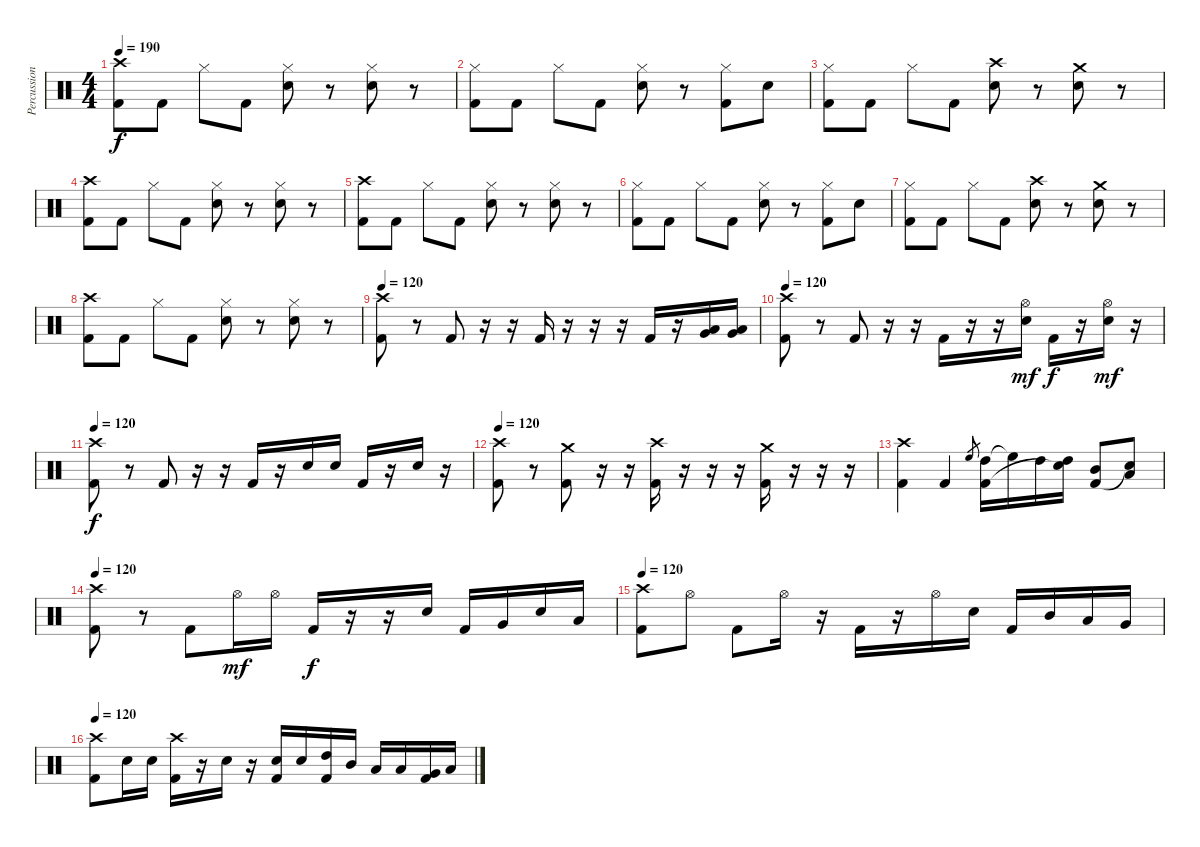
\track ("Percussion" "Percussion") {instrument percussion}
\staff {score}
\articulation defaults
\ts (4 4)
\tempo 190
\clef neutral
\ks c
("Crash high (hit)" "Kick (hit) 2").8{dy f} "Kick (hit) 2".8 "Hi-Hat (closed)".8 "Kick (hit) 2".8 ("Hi-Hat (closed)" "Snare (hit) 2").8 r.8 ("Hi-Hat (closed)" "Snare (hit) 2").8 r.8 |
("Hi-Hat (closed)" "Kick (hit) 2").8 "Kick (hit) 2".8 "Hi-Hat (closed)".8 "Kick (hit) 2".8 ("Hi-Hat (closed)" "Snare (hit) 2").8 r.8 ("Hi-Hat (closed)" "Kick (hit) 2").8 "Snare (hit) 2".8 |
("Hi-Hat (closed)" "Kick (hit) 2").8 "Kick (hit) 2".8 "Hi-Hat (closed)".8 "Kick (hit) 2".8 ("Crash high (hit)" "Snare (hit) 2").8 r.8 ("Crash medium (hit)" "Snare (hit) 2").8 r.8 |
("Crash high (hit)" "Kick (hit) 2").8 "Kick (hit) 2".8 "Hi-Hat (closed)".8 "Kick (hit) 2".8 ("Hi-Hat (closed)" "Snare (hit) 2").8 r.8 ("Hi-Hat (closed)" "Snare (hit) 2").8 r.8 |
("Crash high (hit)" "Kick (hit) 2").8 "Kick (hit) 2".8 "Hi-Hat (closed)".8 "Kick (hit) 2".8 ("Hi-Hat (closed)" "Snare (hit) 2").8 r.8 ("Hi-Hat (closed)" "Snare (hit) 2").8 r.8 |
("Hi-Hat (closed)" "Kick (hit) 2").8 "Kick (hit) 2".8 "Hi-Hat (closed)".8 "Kick (hit) 2".8 ("Hi-Hat (closed)" "Snare (hit) 2").8 r.8 ("Hi-Hat (closed)" "Kick (hit) 2").8 "Snare (hit) 2".8 |
("Hi-Hat (closed)" "Kick (hit) 2").8 "Kick (hit) 2".8 "Hi-Hat (closed)".8 "Kick (hit) 2".8 ("Crash high (hit)" "Snare (hit) 2").8 r.8 ("Crash medium (hit)" "Snare (hit) 2").8 r.8 |
("Crash high (hit)" "Kick (hit) 2").8 "Kick (hit) 2".8 "Hi-Hat (closed)".8 "Kick (hit) 2".8 ("Hi-Hat (closed)" "Snare (hit) 2").8 r.8 ("Hi-Hat (closed)" "Snare (hit) 2").8 r.8 |
\tempo 120
("Crash high (hit)" "Kick (hit) 2").8 r.8 "Kick (hit) 2".8 r.16 r.16 "Kick (hit) 2".16 r.16 r.16 r.16 "Kick (hit) 2".16 r.16 ("Low Tom (hit)" "Very Low Tom (hit)").16 ("Very Low Tom (hit)" "Low Floor Tom (hit)").16 |
\tempo 120
("Crash high (hit)" "Kick (hit) 2").8 r.8 "Kick (hit) 2".8 r.16 r.16 "Kick (hit) 2".16 r.16 r.16 ("Hi-Hat (open)" "Snare (hit) 2").16{dy mf} "Kick (hit) 2".16{dy f} r.16 ("Hi-Hat (open)" "Snare (hit) 2").16{dy mf} r.16 |
\tempo 120
("Crash high (hit)" "Kick (hit) 2").8{dy f} r.8 "Kick (hit) 2".8 r.16 r.16 "Kick (hit) 2".16 r.16 "Snare (hit) 2".16 "Snare (hit) 2".16 "Kick (hit) 2".16 r.16 "Snare (hit) 2".16 r.16 |
\tempo 120
("Crash high (hit)" "Kick (hit) 2").8 r.8 ("Crash medium (hit)" "Kick (hit) 2").8 r.16 r.16 ("Crash high (hit)" "Kick (hit) 2").16 r.16 r.16 r.16 ("Crash medium (hit)" "Kick (hit) 2").16 r.16 r.16 r.16 |
("Crash high (hit)" "Kick (hit) 2").4 "Kick (hit) 2".4 "High Floor Tom (hit)".8{gr} ("High Tom (hit)" "Kick (hit) 2").16 "High Floor Tom (hit)"{t}.16 "High Tom (hit)".16 ("High Tom (hit)" "Snare (hit)"{t}).16 ("Mid Tom (hit)" "Kick (hit) 2").8 ("Low Tom (hit)" "Snare (hit)"{t}).8 |
\tempo 120
("Crash high (hit)" "Kick (hit) 2").8 r.8 "Kick (hit) 2".8 "Hi-Hat (open)".16{dy mf} "Hi-Hat (open)".16 "Kick (hit) 2".16{dy f} r.16 r.16 "Snare (hit) 2".16 "Kick (hit) 2".16 "Very Low Tom (hit)".16 "Snare (hit) 2".16 "Low Floor Tom (hit)".16 |
\tempo 120
("Crash high (hit)" "Kick (hit) 2").8 "Hi-Hat (open)".8 "Kick (hit) 2".8 "Hi-Hat (open)".16 r.16 "Kick (hit) 2".16 r.16 "Hi-Hat (open)".16 "Snare (hit) 2".16 "Kick (hit) 2".16 "Mid Tom (hit)".16 "Low Tom (hit)".16 "Very Low Tom (hit)".16 |
\tempo 120
("Crash high (hit)" "Kick (hit) 2").8 "Snare (hit) 2".16 "Snare (hit) 2".16 ("Crash high (hit)" "Kick (hit) 2").16 r.16 "Snare (hit) 2".16 r.16 ("Snare (hit) 2" "Kick (hit) 2").16 "Snare (hit) 2".16 ("High Tom (hit)" "Kick (hit) 2").16 "Mid Tom (hit)".16 "Low Tom (hit)".16 "Low Tom (hit)".16 ("Very Low Tom (hit)" "Kick (hit) 2").16 "Low Floor Tom (hit)".16
